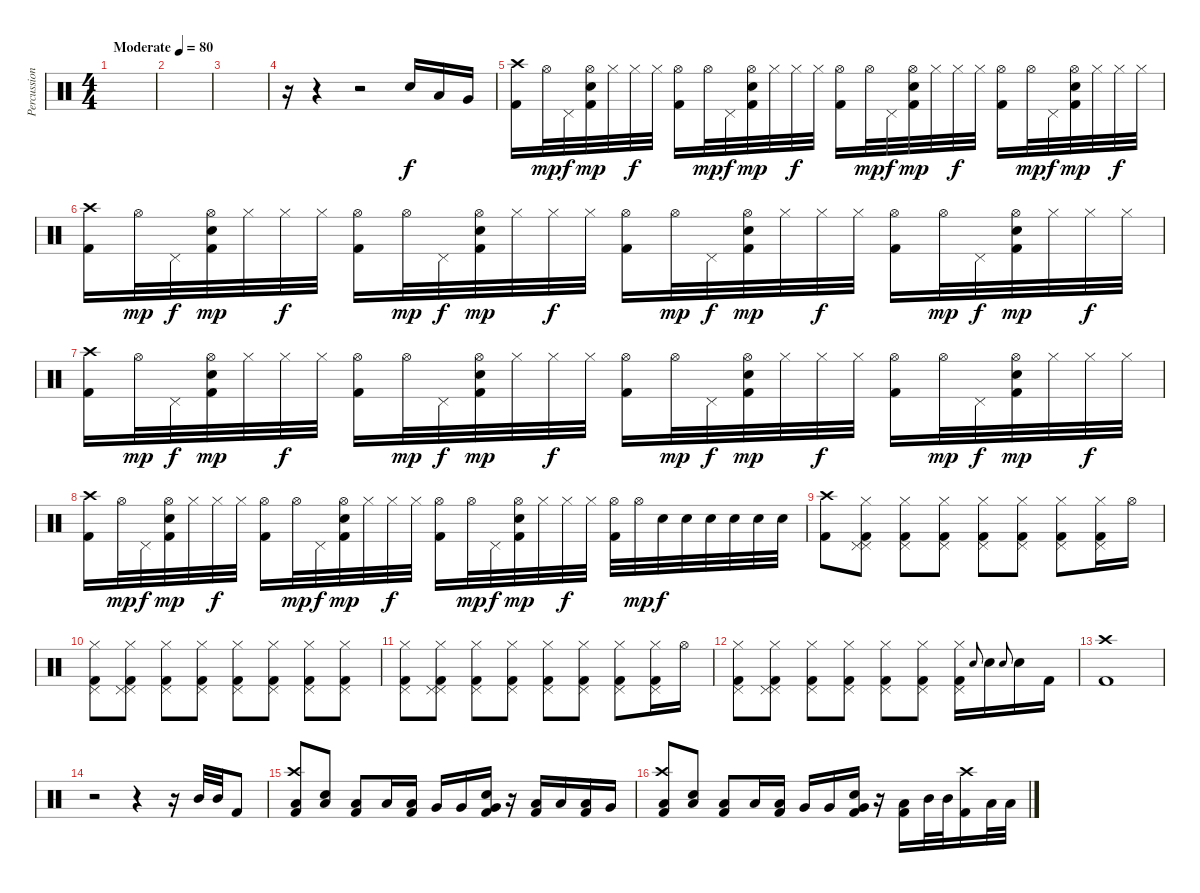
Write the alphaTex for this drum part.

\track ("Percussion" "Percussion") {instrument percussion}
\staff {score}
\articulation defaults
\ts (4 4)
\tempo (80 "Moderate")
\clef neutral
\ks c
|
|
|
r.16 r.4 r.2 "Electric Snare (hit)".16 "Low Tom (hit)".16 "Very Low Tom (hit)".16 |
("Kick (hit) 2" "Crash high (hit)").16 "Hi-Hat (open)".32{dy mp} "Pedal Hi-Hat (hit)".32{dy f} ("Hi-Hat (open)" "Electric Snare (hit)" "Kick (hit) 2").32{dy mp} "Hi-Hat (closed)".32 "Hi-Hat (closed)".32{dy f} "Hi-Hat (closed)".32 ("Kick (hit) 2" "Hi-Hat (open)").16 "Hi-Hat (open)".32{dy mp} "Pedal Hi-Hat (hit)".32{dy f} ("Hi-Hat (open)" "Electric Snare (hit)" "Kick (hit) 2").32{dy mp} "Hi-Hat (closed)".32 "Hi-Hat (closed)".32{dy f} "Hi-Hat (closed)".32 ("Kick (hit) 2" "Hi-Hat (open)").16 "Hi-Hat (open)".32{dy mp} "Pedal Hi-Hat (hit)".32{dy f} ("Hi-Hat (open)" "Electric Snare (hit)" "Kick (hit) 2").32{dy mp} "Hi-Hat (closed)".32 "Hi-Hat (closed)".32{dy f} "Hi-Hat (closed)".32 ("Kick (hit) 2" "Hi-Hat (open)").16 "Hi-Hat (open)".32{dy mp} "Pedal Hi-Hat (hit)".32{dy f} ("Hi-Hat (open)" "Electric Snare (hit)" "Kick (hit) 2").32{dy mp} "Hi-Hat (closed)".32 "Hi-Hat (closed)".32{dy f} "Hi-Hat (closed)".32 |
("Kick (hit) 2" "Crash high (hit)").16 "Hi-Hat (open)".32{dy mp} "Pedal Hi-Hat (hit)".32{dy f} ("Hi-Hat (open)" "Electric Snare (hit)" "Kick (hit) 2").32{dy mp} "Hi-Hat (closed)".32 "Hi-Hat (closed)".32{dy f} "Hi-Hat (closed)".32 ("Kick (hit) 2" "Hi-Hat (open)").16 "Hi-Hat (open)".32{dy mp} "Pedal Hi-Hat (hit)".32{dy f} ("Hi-Hat (open)" "Electric Snare (hit)" "Kick (hit) 2").32{dy mp} "Hi-Hat (closed)".32 "Hi-Hat (closed)".32{dy f} "Hi-Hat (closed)".32 ("Kick (hit) 2" "Hi-Hat (open)").16 "Hi-Hat (open)".32{dy mp} "Pedal Hi-Hat (hit)".32{dy f} ("Hi-Hat (open)" "Electric Snare (hit)" "Kick (hit) 2").32{dy mp} "Hi-Hat (closed)".32 "Hi-Hat (closed)".32{dy f} "Hi-Hat (closed)".32 ("Kick (hit) 2" "Hi-Hat (open)").16 "Hi-Hat (open)".32{dy mp} "Pedal Hi-Hat (hit)".32{dy f} ("Hi-Hat (open)" "Electric Snare (hit)" "Kick (hit) 2").32{dy mp} "Hi-Hat (closed)".32 "Hi-Hat (closed)".32{dy f} "Hi-Hat (closed)".32 |
("Kick (hit) 2" "Crash high (hit)").16 "Hi-Hat (open)".32{dy mp} "Pedal Hi-Hat (hit)".32{dy f} ("Hi-Hat (open)" "Electric Snare (hit)" "Kick (hit) 2").32{dy mp} "Hi-Hat (closed)".32 "Hi-Hat (closed)".32{dy f} "Hi-Hat (closed)".32 ("Kick (hit) 2" "Hi-Hat (open)").16 "Hi-Hat (open)".32{dy mp} "Pedal Hi-Hat (hit)".32{dy f} ("Hi-Hat (open)" "Electric Snare (hit)" "Kick (hit) 2").32{dy mp} "Hi-Hat (closed)".32 "Hi-Hat (closed)".32{dy f} "Hi-Hat (closed)".32 ("Kick (hit) 2" "Hi-Hat (open)").16 "Hi-Hat (open)".32{dy mp} "Pedal Hi-Hat (hit)".32{dy f} ("Hi-Hat (open)" "Electric Snare (hit)" "Kick (hit) 2").32{dy mp} "Hi-Hat (closed)".32 "Hi-Hat (closed)".32{dy f} "Hi-Hat (closed)".32 ("Kick (hit) 2" "Hi-Hat (open)").16 "Hi-Hat (open)".32{dy mp} "Pedal Hi-Hat (hit)".32{dy f} ("Hi-Hat (open)" "Electric Snare (hit)" "Kick (hit) 2").32{dy mp} "Hi-Hat (closed)".32 "Hi-Hat (closed)".32{dy f} "Hi-Hat (closed)".32 |
("Kick (hit) 2" "Crash high (hit)").16 "Hi-Hat (open)".32{dy mp} "Pedal Hi-Hat (hit)".32{dy f} ("Hi-Hat (open)" "Electric Snare (hit)" "Kick (hit) 2").32{dy mp} "Hi-Hat (closed)".32 "Hi-Hat (closed)".32{dy f} "Hi-Hat (closed)".32 ("Kick (hit) 2" "Hi-Hat (open)").16 "Hi-Hat (open)".32{dy mp} "Pedal Hi-Hat (hit)".32{dy f} ("Hi-Hat (open)" "Electric Snare (hit)" "Kick (hit) 2").32{dy mp} "Hi-Hat (closed)".32 "Hi-Hat (closed)".32{dy f} "Hi-Hat (closed)".32 ("Kick (hit) 2" "Hi-Hat (open)").16 "Hi-Hat (open)".32{dy mp} "Pedal Hi-Hat (hit)".32{dy f} ("Hi-Hat (open)" "Electric Snare (hit)" "Kick (hit) 2").32{dy mp} "Hi-Hat (closed)".32 "Hi-Hat (closed)".32{dy f} "Hi-Hat (closed)".32 ("Kick (hit) 2" "Hi-Hat (open)").32 "Hi-Hat (open)".32{dy mp} "Electric Snare (hit)".32{dy f} "Electric Snare (hit)".32 "Electric Snare (hit)".32 "Electric Snare (hit)".32 "Electric Snare (hit)".32 "Electric Snare (hit)".32 |
("Kick (hit) 2" "Crash high (hit)").8 ("Kick (hit) 2" "Pedal Hi-Hat (hit)" "Pedal Hi-Hat (hit)" "Hi-Hat (closed)").8 ("Kick (hit) 2" "Pedal Hi-Hat (hit)" "Hi-Hat (closed)").8 ("Kick (hit) 2" "Pedal Hi-Hat (hit)" "Hi-Hat (closed)").8 ("Kick (hit) 2" "Pedal Hi-Hat (hit)" "Hi-Hat (closed)").8 ("Kick (hit) 2" "Hi-Hat (closed)" "Pedal Hi-Hat (hit)").8 ("Kick (hit) 2" "Pedal Hi-Hat (hit)" "Hi-Hat (closed)").8 ("Kick (hit) 2" "Pedal Hi-Hat (hit)" "Hi-Hat (closed)").16 "Hi-Hat (open)".16 |
("Kick (hit) 2" "Pedal Hi-Hat (hit)" "Hi-Hat (closed)").8 ("Kick (hit) 2" "Pedal Hi-Hat (hit)" "Pedal Hi-Hat (hit)" "Hi-Hat (closed)").8 ("Kick (hit) 2" "Pedal Hi-Hat (hit)" "Hi-Hat (closed)").8 ("Kick (hit) 2" "Pedal Hi-Hat (hit)" "Hi-Hat (closed)").8 ("Kick (hit) 2" "Pedal Hi-Hat (hit)" "Hi-Hat (closed)").8 ("Kick (hit) 2" "Hi-Hat (closed)" "Pedal Hi-Hat (hit)").8 ("Kick (hit) 2" "Pedal Hi-Hat (hit)" "Hi-Hat (closed)").8 ("Kick (hit) 2" "Pedal Hi-Hat (hit)" "Hi-Hat (closed)").8 |
("Kick (hit) 2" "Pedal Hi-Hat (hit)" "Hi-Hat (closed)").8 ("Kick (hit) 2" "Pedal Hi-Hat (hit)" "Pedal Hi-Hat (hit)" "Hi-Hat (closed)").8 ("Kick (hit) 2" "Pedal Hi-Hat (hit)" "Hi-Hat (closed)").8 ("Kick (hit) 2" "Pedal Hi-Hat (hit)" "Hi-Hat (closed)").8 ("Kick (hit) 2" "Pedal Hi-Hat (hit)" "Hi-Hat (closed)").8 ("Kick (hit) 2" "Hi-Hat (closed)" "Pedal Hi-Hat (hit)").8 ("Kick (hit) 2" "Pedal Hi-Hat (hit)" "Hi-Hat (closed)").8 ("Kick (hit) 2" "Pedal Hi-Hat (hit)" "Hi-Hat (closed)").16 "Hi-Hat (open)".16 |
("Kick (hit) 2" "Pedal Hi-Hat (hit)" "Hi-Hat (closed)").8 ("Kick (hit) 2" "Pedal Hi-Hat (hit)" "Pedal Hi-Hat (hit)" "Hi-Hat (closed)").8 ("Kick (hit) 2" "Pedal Hi-Hat (hit)" "Hi-Hat (closed)").8 ("Kick (hit) 2" "Pedal Hi-Hat (hit)" "Hi-Hat (closed)").8 ("Kick (hit) 2" "Pedal Hi-Hat (hit)" "Hi-Hat (closed)").8 ("Kick (hit) 2" "Hi-Hat (closed)" "Pedal Hi-Hat (hit)").8 ("Kick (hit) 2" "Pedal Hi-Hat (hit)" "Hi-Hat (closed)").16 "Electric Snare (hit)".8{gr onbeat} "Electric Snare (hit)".16 "Electric Snare (hit)".8{gr onbeat} "Electric Snare (hit)".16 "Kick (hit) 2".16 |
("Kick (hit) 2" "Crash high (hit)").1 |
r.2 r.4 r.16 "Mid Tom (hit)".32 "Mid Tom (hit)".32 "Kick (hit) 2".8 |
("Kick (hit) 2" "Low Floor Tom (hit)" "Crash high (hit)").8 ("Electric Snare (hit)" "Low Floor Tom (hit)").8 ("Kick (hit) 2" "Low Floor Tom (hit)").8 "Low Tom (hit)".16 ("Low Floor Tom (hit)" "Kick (hit) 2").16 "Very Low Tom (hit)".16 "Very Low Tom (hit)".16 ("Electric Snare (hit)" "Kick (hit) 2" "Very Low Tom (hit)").16 r.16 ("Kick (hit) 2" "Low Floor Tom (hit)").16 "Low Tom (hit)".16 ("Kick (hit) 2" "Low Floor Tom (hit)").16 "Very Low Tom (hit)".16 |
("Kick (hit) 2" "Low Floor Tom (hit)" "Crash high (hit)").8 ("Electric Snare (hit)" "Low Floor Tom (hit)").8 ("Kick (hit) 2" "Low Floor Tom (hit)").8 "Low Tom (hit)".16 ("Low Floor Tom (hit)" "Kick (hit) 2").16 "Very Low Tom (hit)".16 "Very Low Tom (hit)".16 ("Electric Snare (hit)" "Kick (hit) 2" "Very Low Tom (hit)").16 r.16 ("Kick (hit) 2" "Low Floor Tom (hit)").16 "Mid Tom (hit)".32 "Mid Tom (hit)".32 ("Kick (hit) 2" "Crash high (hit)").16 "Low Tom (hit)".32 "Low Tom (hit)".32
